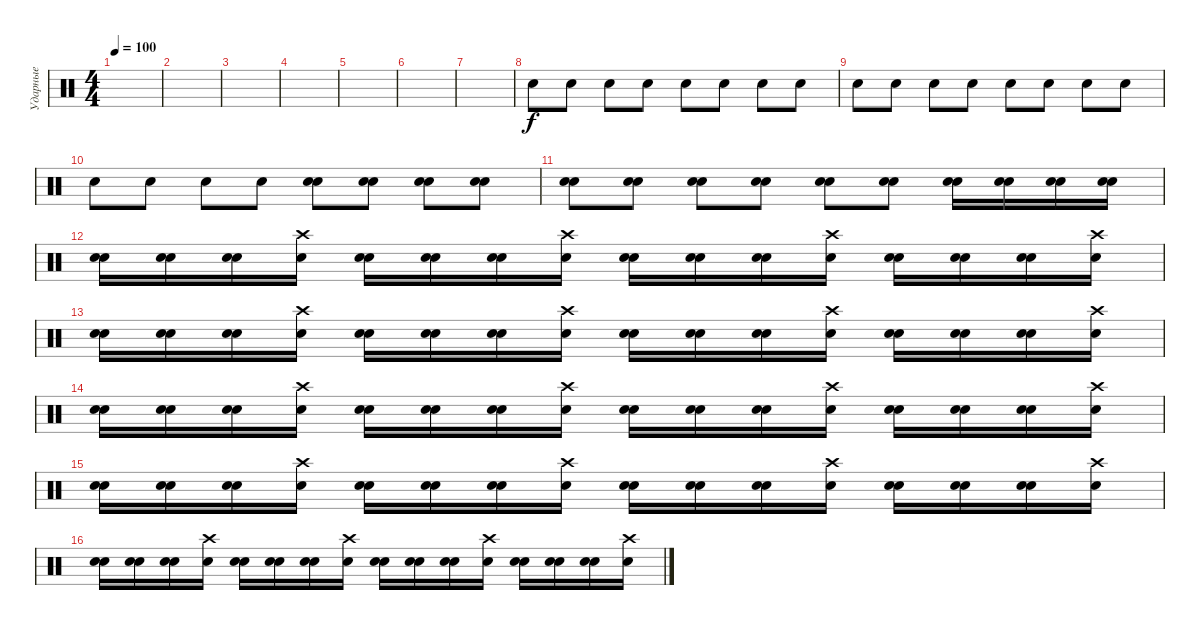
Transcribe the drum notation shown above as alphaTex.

\track ("Ударные" "Ударные") {instrument percussion}
\staff {score}
\articulation defaults
\ts (4 4)
\tempo 100
\clef neutral
\ks c
|
|
|
|
|
|
|
"Electric Snare (hit)".8 "Electric Snare (hit)".8 "Electric Snare (hit)".8 "Electric Snare (hit)".8 "Electric Snare (hit)".8 "Electric Snare (hit)".8 "Electric Snare (hit)".8 "Electric Snare (hit)".8 |
"Electric Snare (hit)".8 "Electric Snare (hit)".8 "Electric Snare (hit)".8 "Electric Snare (hit)".8 "Electric Snare (hit)".8 "Electric Snare (hit)".8 "Electric Snare (hit)".8 "Electric Snare (hit)".8 |
"Electric Snare (hit)".8 "Electric Snare (hit)".8 "Electric Snare (hit)".8 "Electric Snare (hit)".8 ("Electric Snare (hit)" "Electric Snare (hit)").8 ("Electric Snare (hit)" "Electric Snare (hit)").8 ("Electric Snare (hit)" "Electric Snare (hit)").8 ("Electric Snare (hit)" "Electric Snare (hit)").8 |
("Electric Snare (hit)" "Electric Snare (hit)").8 ("Electric Snare (hit)" "Electric Snare (hit)").8 ("Electric Snare (hit)" "Electric Snare (hit)").8 ("Electric Snare (hit)" "Electric Snare (hit)").8 ("Electric Snare (hit)" "Electric Snare (hit)").8 ("Electric Snare (hit)" "Electric Snare (hit)").8 ("Electric Snare (hit)" "Electric Snare (hit)").16 ("Electric Snare (hit)" "Electric Snare (hit)").16 ("Electric Snare (hit)" "Electric Snare (hit)").16 ("Electric Snare (hit)" "Electric Snare (hit)").16 |
("Electric Snare (hit)" "Electric Snare (hit)").16 ("Electric Snare (hit)" "Electric Snare (hit)").16 ("Electric Snare (hit)" "Electric Snare (hit)").16 ("Electric Snare (hit)" "Crash high (hit)").16 ("Electric Snare (hit)" "Electric Snare (hit)").16 ("Electric Snare (hit)" "Electric Snare (hit)").16 ("Electric Snare (hit)" "Electric Snare (hit)").16 ("Electric Snare (hit)" "Crash high (hit)").16 ("Electric Snare (hit)" "Electric Snare (hit)").16 ("Electric Snare (hit)" "Electric Snare (hit)").16 ("Electric Snare (hit)" "Electric Snare (hit)").16 ("Electric Snare (hit)" "Crash high (hit)").16 ("Electric Snare (hit)" "Electric Snare (hit)").16 ("Electric Snare (hit)" "Electric Snare (hit)").16 ("Electric Snare (hit)" "Electric Snare (hit)").16 ("Electric Snare (hit)" "Crash high (hit)").16 |
("Electric Snare (hit)" "Electric Snare (hit)").16 ("Electric Snare (hit)" "Electric Snare (hit)").16 ("Electric Snare (hit)" "Electric Snare (hit)").16 ("Electric Snare (hit)" "Crash high (hit)").16 ("Electric Snare (hit)" "Electric Snare (hit)").16 ("Electric Snare (hit)" "Electric Snare (hit)").16 ("Electric Snare (hit)" "Electric Snare (hit)").16 ("Electric Snare (hit)" "Crash high (hit)").16 ("Electric Snare (hit)" "Electric Snare (hit)").16 ("Electric Snare (hit)" "Electric Snare (hit)").16 ("Electric Snare (hit)" "Electric Snare (hit)").16 ("Electric Snare (hit)" "Crash high (hit)").16 ("Electric Snare (hit)" "Electric Snare (hit)").16 ("Electric Snare (hit)" "Electric Snare (hit)").16 ("Electric Snare (hit)" "Electric Snare (hit)").16 ("Electric Snare (hit)" "Crash high (hit)").16 |
("Electric Snare (hit)" "Electric Snare (hit)").16 ("Electric Snare (hit)" "Electric Snare (hit)").16 ("Electric Snare (hit)" "Electric Snare (hit)").16 ("Electric Snare (hit)" "Crash high (hit)").16 ("Electric Snare (hit)" "Electric Snare (hit)").16 ("Electric Snare (hit)" "Electric Snare (hit)").16 ("Electric Snare (hit)" "Electric Snare (hit)").16 ("Electric Snare (hit)" "Crash high (hit)").16 ("Electric Snare (hit)" "Electric Snare (hit)").16 ("Electric Snare (hit)" "Electric Snare (hit)").16 ("Electric Snare (hit)" "Electric Snare (hit)").16 ("Electric Snare (hit)" "Crash high (hit)").16 ("Electric Snare (hit)" "Electric Snare (hit)").16 ("Electric Snare (hit)" "Electric Snare (hit)").16 ("Electric Snare (hit)" "Electric Snare (hit)").16 ("Electric Snare (hit)" "Crash high (hit)").16 |
("Electric Snare (hit)" "Electric Snare (hit)").16 ("Electric Snare (hit)" "Electric Snare (hit)").16 ("Electric Snare (hit)" "Electric Snare (hit)").16 ("Electric Snare (hit)" "Crash high (hit)").16 ("Electric Snare (hit)" "Electric Snare (hit)").16 ("Electric Snare (hit)" "Electric Snare (hit)").16 ("Electric Snare (hit)" "Electric Snare (hit)").16 ("Electric Snare (hit)" "Crash high (hit)").16 ("Electric Snare (hit)" "Electric Snare (hit)").16 ("Electric Snare (hit)" "Electric Snare (hit)").16 ("Electric Snare (hit)" "Electric Snare (hit)").16 ("Electric Snare (hit)" "Crash high (hit)").16 ("Electric Snare (hit)" "Electric Snare (hit)").16 ("Electric Snare (hit)" "Electric Snare (hit)").16 ("Electric Snare (hit)" "Electric Snare (hit)").16 ("Electric Snare (hit)" "Crash high (hit)").16 |
("Electric Snare (hit)" "Electric Snare (hit)").16 ("Electric Snare (hit)" "Electric Snare (hit)").16 ("Electric Snare (hit)" "Electric Snare (hit)").16 ("Electric Snare (hit)" "Crash high (hit)").16 ("Electric Snare (hit)" "Electric Snare (hit)").16 ("Electric Snare (hit)" "Electric Snare (hit)").16 ("Electric Snare (hit)" "Electric Snare (hit)").16 ("Electric Snare (hit)" "Crash high (hit)").16 ("Electric Snare (hit)" "Electric Snare (hit)").16 ("Electric Snare (hit)" "Electric Snare (hit)").16 ("Electric Snare (hit)" "Electric Snare (hit)").16 ("Electric Snare (hit)" "Crash high (hit)").16 ("Electric Snare (hit)" "Electric Snare (hit)").16 ("Electric Snare (hit)" "Electric Snare (hit)").16 ("Electric Snare (hit)" "Electric Snare (hit)").16 ("Electric Snare (hit)" "Crash high (hit)").16
